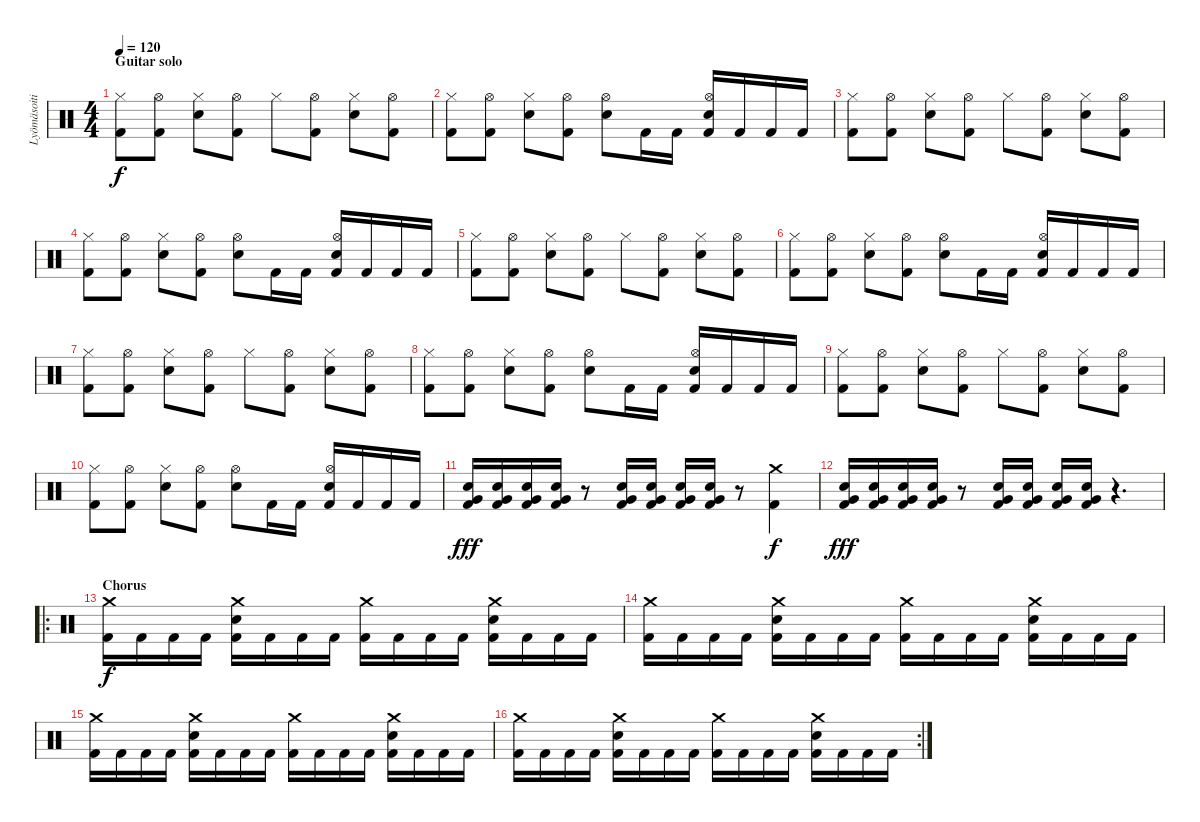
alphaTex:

\track ("Lyömäsoitin" "Lyömäsoiti") {instrument percussion}
\staff {score}
\articulation defaults
\ts (4 4)
\section ("" "Guitar solo")
\tempo 120
\clef neutral
\ks c
("Hi-Hat (closed)" "Kick (hit) 2").8{dy f} ("Hi-Hat (open)" "Kick (hit) 2").8 ("Hi-Hat (closed)" "Electric Snare (hit)").8 ("Hi-Hat (open)" "Kick (hit) 2").8 "Hi-Hat (closed)".8 ("Hi-Hat (open)" "Kick (hit) 2").8 ("Hi-Hat (closed)" "Electric Snare (hit)").8 ("Hi-Hat (open)" "Kick (hit) 2").8 |
("Hi-Hat (closed)" "Kick (hit) 2").8 ("Hi-Hat (open)" "Kick (hit) 2").8 ("Hi-Hat (closed)" "Electric Snare (hit)").8 ("Hi-Hat (open)" "Kick (hit) 2").8 ("Hi-Hat (open)" "Electric Snare (hit)").8 "Kick (hit) 2".16 "Kick (hit) 2".16 ("Hi-Hat (open)" "Electric Snare (hit)" "Kick (hit) 2").16 "Kick (hit) 2".16 "Kick (hit) 2".16 "Kick (hit) 2".16 |
("Hi-Hat (closed)" "Kick (hit) 2").8 ("Hi-Hat (open)" "Kick (hit) 2").8 ("Hi-Hat (closed)" "Electric Snare (hit)").8 ("Hi-Hat (open)" "Kick (hit) 2").8 "Hi-Hat (closed)".8 ("Hi-Hat (open)" "Kick (hit) 2").8 ("Hi-Hat (closed)" "Electric Snare (hit)").8 ("Hi-Hat (open)" "Kick (hit) 2").8 |
("Hi-Hat (closed)" "Kick (hit) 2").8 ("Hi-Hat (open)" "Kick (hit) 2").8 ("Hi-Hat (closed)" "Electric Snare (hit)").8 ("Hi-Hat (open)" "Kick (hit) 2").8 ("Hi-Hat (open)" "Electric Snare (hit)").8 "Kick (hit) 2".16 "Kick (hit) 2".16 ("Hi-Hat (open)" "Electric Snare (hit)" "Kick (hit) 2").16 "Kick (hit) 2".16 "Kick (hit) 2".16 "Kick (hit) 2".16 |
("Hi-Hat (closed)" "Kick (hit) 2").8 ("Hi-Hat (open)" "Kick (hit) 2").8 ("Hi-Hat (closed)" "Electric Snare (hit)").8 ("Hi-Hat (open)" "Kick (hit) 2").8 "Hi-Hat (closed)".8 ("Hi-Hat (open)" "Kick (hit) 2").8 ("Hi-Hat (closed)" "Electric Snare (hit)").8 ("Hi-Hat (open)" "Kick (hit) 2").8 |
("Hi-Hat (closed)" "Kick (hit) 2").8 ("Hi-Hat (open)" "Kick (hit) 2").8 ("Hi-Hat (closed)" "Electric Snare (hit)").8 ("Hi-Hat (open)" "Kick (hit) 2").8 ("Hi-Hat (open)" "Electric Snare (hit)").8 "Kick (hit) 2".16 "Kick (hit) 2".16 ("Hi-Hat (open)" "Electric Snare (hit)" "Kick (hit) 2").16 "Kick (hit) 2".16 "Kick (hit) 2".16 "Kick (hit) 2".16 |
("Hi-Hat (closed)" "Kick (hit) 2").8 ("Hi-Hat (open)" "Kick (hit) 2").8 ("Hi-Hat (closed)" "Electric Snare (hit)").8 ("Hi-Hat (open)" "Kick (hit) 2").8 "Hi-Hat (closed)".8 ("Hi-Hat (open)" "Kick (hit) 2").8 ("Hi-Hat (closed)" "Electric Snare (hit)").8 ("Hi-Hat (open)" "Kick (hit) 2").8 |
("Hi-Hat (closed)" "Kick (hit) 2").8 ("Hi-Hat (open)" "Kick (hit) 2").8 ("Hi-Hat (closed)" "Electric Snare (hit)").8 ("Hi-Hat (open)" "Kick (hit) 2").8 ("Hi-Hat (open)" "Electric Snare (hit)").8 "Kick (hit) 2".16 "Kick (hit) 2".16 ("Hi-Hat (open)" "Electric Snare (hit)" "Kick (hit) 2").16 "Kick (hit) 2".16 "Kick (hit) 2".16 "Kick (hit) 2".16 |
("Hi-Hat (closed)" "Kick (hit) 2").8 ("Hi-Hat (open)" "Kick (hit) 2").8 ("Hi-Hat (closed)" "Electric Snare (hit)").8 ("Hi-Hat (open)" "Kick (hit) 2").8 "Hi-Hat (closed)".8 ("Hi-Hat (open)" "Kick (hit) 2").8 ("Hi-Hat (closed)" "Electric Snare (hit)").8 ("Hi-Hat (open)" "Kick (hit) 2").8 |
("Hi-Hat (closed)" "Kick (hit) 2").8 ("Hi-Hat (open)" "Kick (hit) 2").8 ("Hi-Hat (closed)" "Electric Snare (hit)").8 ("Hi-Hat (open)" "Kick (hit) 2").8 ("Hi-Hat (open)" "Electric Snare (hit)").8 "Kick (hit) 2".16 "Kick (hit) 2".16 ("Hi-Hat (open)" "Electric Snare (hit)" "Kick (hit) 2").16 "Kick (hit) 2".16 "Kick (hit) 2".16 "Kick (hit) 2".16 |
("Very Low Tom (hit)" "Electric Snare (hit)" "Kick (hit) 2").16{dy fff} ("Very Low Tom (hit)" "Electric Snare (hit)" "Kick (hit) 2").16 ("Very Low Tom (hit)" "Electric Snare (hit)" "Kick (hit) 2").16 ("Very Low Tom (hit)" "Electric Snare (hit)" "Kick (hit) 2").16 r.8 ("Very Low Tom (hit)" "Electric Snare (hit)" "Kick (hit) 2").16 ("Very Low Tom (hit)" "Electric Snare (hit)" "Kick (hit) 2").16 ("Very Low Tom (hit)" "Electric Snare (hit)" "Kick (hit) 2").16 ("Very Low Tom (hit)" "Electric Snare (hit)" "Kick (hit) 2").16 r.8 ("Crash medium (hit)" "Kick (hit) 2").4{dy f} |
("Very Low Tom (hit)" "Electric Snare (hit)" "Kick (hit) 2").16{dy fff} ("Very Low Tom (hit)" "Electric Snare (hit)" "Kick (hit) 2").16 ("Very Low Tom (hit)" "Electric Snare (hit)" "Kick (hit) 2").16 ("Very Low Tom (hit)" "Electric Snare (hit)" "Kick (hit) 2").16 r.8 ("Very Low Tom (hit)" "Electric Snare (hit)" "Kick (hit) 2").16 ("Very Low Tom (hit)" "Electric Snare (hit)" "Kick (hit) 2").16 ("Very Low Tom (hit)" "Electric Snare (hit)" "Kick (hit) 2").16 ("Very Low Tom (hit)" "Electric Snare (hit)" "Kick (hit) 2").16 r.4{d} |
\ro
\section ("" "Chorus")
("Crash medium (hit)" "Kick (hit) 2").16{dy f} "Kick (hit) 2".16 "Kick (hit) 2".16 "Kick (hit) 2".16 ("Crash medium (hit)" "Electric Snare (hit)" "Kick (hit) 2").16 "Kick (hit) 2".16 "Kick (hit) 2".16 "Kick (hit) 2".16 ("Crash medium (hit)" "Kick (hit) 2").16 "Kick (hit) 2".16 "Kick (hit) 2".16 "Kick (hit) 2".16 ("Crash medium (hit)" "Electric Snare (hit)" "Kick (hit) 2").16 "Kick (hit) 2".16 "Kick (hit) 2".16 "Kick (hit) 2".16 |
("Crash medium (hit)" "Kick (hit) 2").16 "Kick (hit) 2".16 "Kick (hit) 2".16 "Kick (hit) 2".16 ("Crash medium (hit)" "Electric Snare (hit)" "Kick (hit) 2").16 "Kick (hit) 2".16 "Kick (hit) 2".16 "Kick (hit) 2".16 ("Crash medium (hit)" "Kick (hit) 2").16 "Kick (hit) 2".16 "Kick (hit) 2".16 "Kick (hit) 2".16 ("Crash medium (hit)" "Electric Snare (hit)" "Kick (hit) 2").16 "Kick (hit) 2".16 "Kick (hit) 2".16 "Kick (hit) 2".16 |
("Crash medium (hit)" "Kick (hit) 2").16 "Kick (hit) 2".16 "Kick (hit) 2".16 "Kick (hit) 2".16 ("Crash medium (hit)" "Electric Snare (hit)" "Kick (hit) 2").16 "Kick (hit) 2".16 "Kick (hit) 2".16 "Kick (hit) 2".16 ("Crash medium (hit)" "Kick (hit) 2").16 "Kick (hit) 2".16 "Kick (hit) 2".16 "Kick (hit) 2".16 ("Crash medium (hit)" "Electric Snare (hit)" "Kick (hit) 2").16 "Kick (hit) 2".16 "Kick (hit) 2".16 "Kick (hit) 2".16 |
\rc 2
("Crash medium (hit)" "Kick (hit) 2").16 "Kick (hit) 2".16 "Kick (hit) 2".16 "Kick (hit) 2".16 ("Crash medium (hit)" "Electric Snare (hit)" "Kick (hit) 2").16 "Kick (hit) 2".16 "Kick (hit) 2".16 "Kick (hit) 2".16 ("Crash medium (hit)" "Kick (hit) 2").16 "Kick (hit) 2".16 "Kick (hit) 2".16 "Kick (hit) 2".16 ("Crash medium (hit)" "Electric Snare (hit)" "Kick (hit) 2").16 "Kick (hit) 2".16 "Kick (hit) 2".16 "Kick (hit) 2".16
